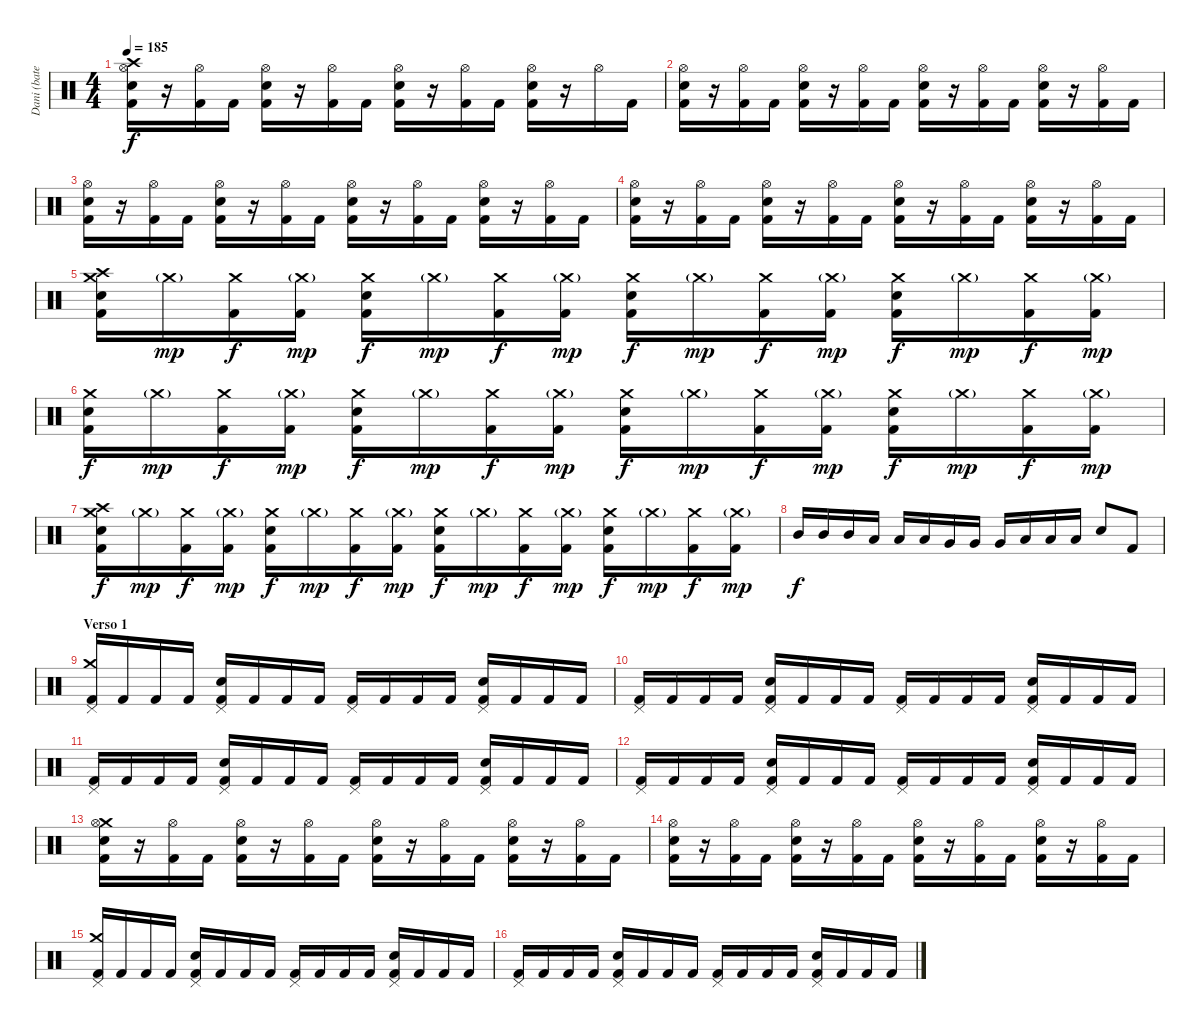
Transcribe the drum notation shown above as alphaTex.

\track ("Dani (batería)" "Dani (bate") {instrument percussion}
\staff {score}
\articulation defaults
\ts (4 4)
\tempo 185
\clef neutral
\ks c
("Crash high (hit)" "Hi-Hat (open)" "Snare (hit) 2" "Kick (hit) 2").16{dy f} r.16 ("Hi-Hat (open)" "Kick (hit) 2").16 "Kick (hit) 2".16 ("Hi-Hat (open)" "Snare (hit) 2" "Kick (hit) 2").16 r.16 ("Hi-Hat (open)" "Kick (hit) 2").16 "Kick (hit) 2".16 ("Hi-Hat (open)" "Snare (hit) 2" "Kick (hit) 2").16 r.16 ("Hi-Hat (open)" "Kick (hit) 2").16 "Kick (hit) 2".16 ("Hi-Hat (open)" "Snare (hit) 2" "Kick (hit) 2").16 r.16 "Hi-Hat (open)".16 "Kick (hit) 2".16 |
("Hi-Hat (open)" "Snare (hit) 2" "Kick (hit) 2").16 r.16 ("Hi-Hat (open)" "Kick (hit) 2").16 "Kick (hit) 2".16 ("Hi-Hat (open)" "Snare (hit) 2" "Kick (hit) 2").16 r.16 ("Hi-Hat (open)" "Kick (hit) 2").16 "Kick (hit) 2".16 ("Hi-Hat (open)" "Snare (hit) 2" "Kick (hit) 2").16 r.16 ("Hi-Hat (open)" "Kick (hit) 2").16 "Kick (hit) 2".16 ("Hi-Hat (open)" "Snare (hit) 2" "Kick (hit) 2").16 r.16 ("Hi-Hat (open)" "Kick (hit) 2").16 "Kick (hit) 2".16 |
("Hi-Hat (open)" "Snare (hit) 2" "Kick (hit) 2").16 r.16 ("Hi-Hat (open)" "Kick (hit) 2").16 "Kick (hit) 2".16 ("Hi-Hat (open)" "Snare (hit) 2" "Kick (hit) 2").16 r.16 ("Hi-Hat (open)" "Kick (hit) 2").16 "Kick (hit) 2".16 ("Hi-Hat (open)" "Snare (hit) 2" "Kick (hit) 2").16 r.16 ("Hi-Hat (open)" "Kick (hit) 2").16 "Kick (hit) 2".16 ("Hi-Hat (open)" "Snare (hit) 2" "Kick (hit) 2").16 r.16 ("Hi-Hat (open)" "Kick (hit) 2").16 "Kick (hit) 2".16 |
("Hi-Hat (open)" "Snare (hit) 2" "Kick (hit) 2").16 r.16 ("Hi-Hat (open)" "Kick (hit) 2").16 "Kick (hit) 2".16 ("Hi-Hat (open)" "Snare (hit) 2" "Kick (hit) 2").16 r.16 ("Hi-Hat (open)" "Kick (hit) 2").16 "Kick (hit) 2".16 ("Hi-Hat (open)" "Snare (hit) 2" "Kick (hit) 2").16 r.16 ("Hi-Hat (open)" "Kick (hit) 2").16 "Kick (hit) 2".16 ("Hi-Hat (open)" "Snare (hit) 2" "Kick (hit) 2").16 r.16 ("Hi-Hat (open)" "Kick (hit) 2").16 "Kick (hit) 2".16 |
("Crash high (hit)" "Crash medium (hit)" "Snare (hit) 2" "Kick (hit) 2").16 "Crash medium (hit)"{g}.16{dy mp} ("Crash medium (hit)" "Kick (hit) 2").16{dy f} ("Crash medium (hit)"{g} "Kick (hit) 2").16{dy mp} ("Crash medium (hit)" "Snare (hit) 2" "Kick (hit) 2").16{dy f} "Crash medium (hit)"{g}.16{dy mp} ("Crash medium (hit)" "Kick (hit) 2").16{dy f} ("Crash medium (hit)"{g} "Kick (hit) 2").16{dy mp} ("Crash medium (hit)" "Snare (hit) 2" "Kick (hit) 2").16{dy f} "Crash medium (hit)"{g}.16{dy mp} ("Crash medium (hit)" "Kick (hit) 2").16{dy f} ("Crash medium (hit)"{g} "Kick (hit) 2").16{dy mp} ("Crash medium (hit)" "Snare (hit) 2" "Kick (hit) 2").16{dy f} "Crash medium (hit)"{g}.16{dy mp} ("Crash medium (hit)" "Kick (hit) 2").16{dy f} ("Crash medium (hit)"{g} "Kick (hit) 2").16{dy mp} |
("Crash medium (hit)" "Snare (hit) 2" "Kick (hit) 2").16{dy f} "Crash medium (hit)"{g}.16{dy mp} ("Crash medium (hit)" "Kick (hit) 2").16{dy f} ("Crash medium (hit)"{g} "Kick (hit) 2").16{dy mp} ("Crash medium (hit)" "Snare (hit) 2" "Kick (hit) 2").16{dy f} "Crash medium (hit)"{g}.16{dy mp} ("Crash medium (hit)" "Kick (hit) 2").16{dy f} ("Crash medium (hit)"{g} "Kick (hit) 2").16{dy mp} ("Crash medium (hit)" "Snare (hit) 2" "Kick (hit) 2").16{dy f} "Crash medium (hit)"{g}.16{dy mp} ("Crash medium (hit)" "Kick (hit) 2").16{dy f} ("Crash medium (hit)"{g} "Kick (hit) 2").16{dy mp} ("Crash medium (hit)" "Snare (hit) 2" "Kick (hit) 2").16{dy f} "Crash medium (hit)"{g}.16{dy mp} ("Crash medium (hit)" "Kick (hit) 2").16{dy f} ("Crash medium (hit)"{g} "Kick (hit) 2").16{dy mp} |
("Crash high (hit)" "Crash medium (hit)" "Snare (hit) 2" "Kick (hit) 2").16{dy f} "Crash medium (hit)"{g}.16{dy mp} ("Crash medium (hit)" "Kick (hit) 2").16{dy f} ("Crash medium (hit)"{g} "Kick (hit) 2").16{dy mp} ("Crash medium (hit)" "Snare (hit) 2" "Kick (hit) 2").16{dy f} "Crash medium (hit)"{g}.16{dy mp} ("Crash medium (hit)" "Kick (hit) 2").16{dy f} ("Crash medium (hit)"{g} "Kick (hit) 2").16{dy mp} ("Crash medium (hit)" "Snare (hit) 2" "Kick (hit) 2").16{dy f} "Crash medium (hit)"{g}.16{dy mp} ("Crash medium (hit)" "Kick (hit) 2").16{dy f} ("Crash medium (hit)"{g} "Kick (hit) 2").16{dy mp} ("Crash medium (hit)" "Snare (hit) 2" "Kick (hit) 2").16{dy f} "Crash medium (hit)"{g}.16{dy mp} ("Crash medium (hit)" "Kick (hit) 2").16{dy f} ("Crash medium (hit)"{g} "Kick (hit) 2").16{dy mp} |
"Mid Tom (hit)".16{dy f} "Mid Tom (hit)".16 "Mid Tom (hit)".16 "Low Tom (hit)".16 "Low Tom (hit)".16 "Low Tom (hit)".16 "Very Low Tom (hit)".16 "Very Low Tom (hit)".16 "Very Low Tom (hit)".16 "Low Floor Tom (hit)".16 "Low Floor Tom (hit)".16 "Low Floor Tom (hit)".16 "Snare (hit) 2".8 "Kick (hit) 2".8 |
\section ("" "Verso 1")
("Crash medium (hit)" "Pedal Hi-Hat (hit)" "Kick (hit) 2").16 "Kick (hit) 2".16 "Kick (hit) 2".16 "Kick (hit) 2".16 ("Pedal Hi-Hat (hit)" "Snare (hit) 2" "Kick (hit) 2").16 "Kick (hit) 2".16 "Kick (hit) 2".16 "Kick (hit) 2".16 ("Pedal Hi-Hat (hit)" "Kick (hit) 2").16 "Kick (hit) 2".16 "Kick (hit) 2".16 "Kick (hit) 2".16 ("Pedal Hi-Hat (hit)" "Snare (hit) 2" "Kick (hit) 2").16 "Kick (hit) 2".16 "Kick (hit) 2".16 "Kick (hit) 2".16 |
("Pedal Hi-Hat (hit)" "Kick (hit) 2").16 "Kick (hit) 2".16 "Kick (hit) 2".16 "Kick (hit) 2".16 ("Pedal Hi-Hat (hit)" "Snare (hit) 2" "Kick (hit) 2").16 "Kick (hit) 2".16 "Kick (hit) 2".16 "Kick (hit) 2".16 ("Pedal Hi-Hat (hit)" "Kick (hit) 2").16 "Kick (hit) 2".16 "Kick (hit) 2".16 "Kick (hit) 2".16 ("Pedal Hi-Hat (hit)" "Snare (hit) 2" "Kick (hit) 2").16 "Kick (hit) 2".16 "Kick (hit) 2".16 "Kick (hit) 2".16 |
("Pedal Hi-Hat (hit)" "Kick (hit) 2").16 "Kick (hit) 2".16 "Kick (hit) 2".16 "Kick (hit) 2".16 ("Pedal Hi-Hat (hit)" "Snare (hit) 2" "Kick (hit) 2").16 "Kick (hit) 2".16 "Kick (hit) 2".16 "Kick (hit) 2".16 ("Pedal Hi-Hat (hit)" "Kick (hit) 2").16 "Kick (hit) 2".16 "Kick (hit) 2".16 "Kick (hit) 2".16 ("Pedal Hi-Hat (hit)" "Snare (hit) 2" "Kick (hit) 2").16 "Kick (hit) 2".16 "Kick (hit) 2".16 "Kick (hit) 2".16 |
("Pedal Hi-Hat (hit)" "Kick (hit) 2").16 "Kick (hit) 2".16 "Kick (hit) 2".16 "Kick (hit) 2".16 ("Pedal Hi-Hat (hit)" "Snare (hit) 2" "Kick (hit) 2").16 "Kick (hit) 2".16 "Kick (hit) 2".16 "Kick (hit) 2".16 ("Pedal Hi-Hat (hit)" "Kick (hit) 2").16 "Kick (hit) 2".16 "Kick (hit) 2".16 "Kick (hit) 2".16 ("Pedal Hi-Hat (hit)" "Snare (hit) 2" "Kick (hit) 2").16 "Kick (hit) 2".16 "Kick (hit) 2".16 "Kick (hit) 2".16 |
("Crash medium (hit)" "Hi-Hat (open)" "Snare (hit) 2" "Kick (hit) 2").16 r.16 ("Hi-Hat (open)" "Kick (hit) 2").16 "Kick (hit) 2".16 ("Hi-Hat (open)" "Snare (hit) 2" "Kick (hit) 2").16 r.16 ("Hi-Hat (open)" "Kick (hit) 2").16 "Kick (hit) 2".16 ("Hi-Hat (open)" "Snare (hit) 2" "Kick (hit) 2").16 r.16 ("Hi-Hat (open)" "Kick (hit) 2").16 "Kick (hit) 2".16 ("Hi-Hat (open)" "Snare (hit) 2" "Kick (hit) 2").16 r.16 ("Hi-Hat (open)" "Kick (hit) 2").16 "Kick (hit) 2".16 |
("Hi-Hat (open)" "Snare (hit) 2" "Kick (hit) 2").16 r.16 ("Hi-Hat (open)" "Kick (hit) 2").16 "Kick (hit) 2".16 ("Hi-Hat (open)" "Snare (hit) 2" "Kick (hit) 2").16 r.16 ("Hi-Hat (open)" "Kick (hit) 2").16 "Kick (hit) 2".16 ("Hi-Hat (open)" "Snare (hit) 2" "Kick (hit) 2").16 r.16 ("Hi-Hat (open)" "Kick (hit) 2").16 "Kick (hit) 2".16 ("Hi-Hat (open)" "Snare (hit) 2" "Kick (hit) 2").16 r.16 ("Hi-Hat (open)" "Kick (hit) 2").16 "Kick (hit) 2".16 |
("Crash medium (hit)" "Pedal Hi-Hat (hit)" "Kick (hit) 2").16 "Kick (hit) 2".16 "Kick (hit) 2".16 "Kick (hit) 2".16 ("Pedal Hi-Hat (hit)" "Snare (hit) 2" "Kick (hit) 2").16 "Kick (hit) 2".16 "Kick (hit) 2".16 "Kick (hit) 2".16 ("Pedal Hi-Hat (hit)" "Kick (hit) 2").16 "Kick (hit) 2".16 "Kick (hit) 2".16 "Kick (hit) 2".16 ("Pedal Hi-Hat (hit)" "Snare (hit) 2" "Kick (hit) 2").16 "Kick (hit) 2".16 "Kick (hit) 2".16 "Kick (hit) 2".16 |
("Pedal Hi-Hat (hit)" "Kick (hit) 2").16 "Kick (hit) 2".16 "Kick (hit) 2".16 "Kick (hit) 2".16 ("Pedal Hi-Hat (hit)" "Snare (hit) 2" "Kick (hit) 2").16 "Kick (hit) 2".16 "Kick (hit) 2".16 "Kick (hit) 2".16 ("Pedal Hi-Hat (hit)" "Kick (hit) 2").16 "Kick (hit) 2".16 "Kick (hit) 2".16 "Kick (hit) 2".16 ("Pedal Hi-Hat (hit)" "Snare (hit) 2" "Kick (hit) 2").16 "Kick (hit) 2".16 "Kick (hit) 2".16 "Kick (hit) 2".16
